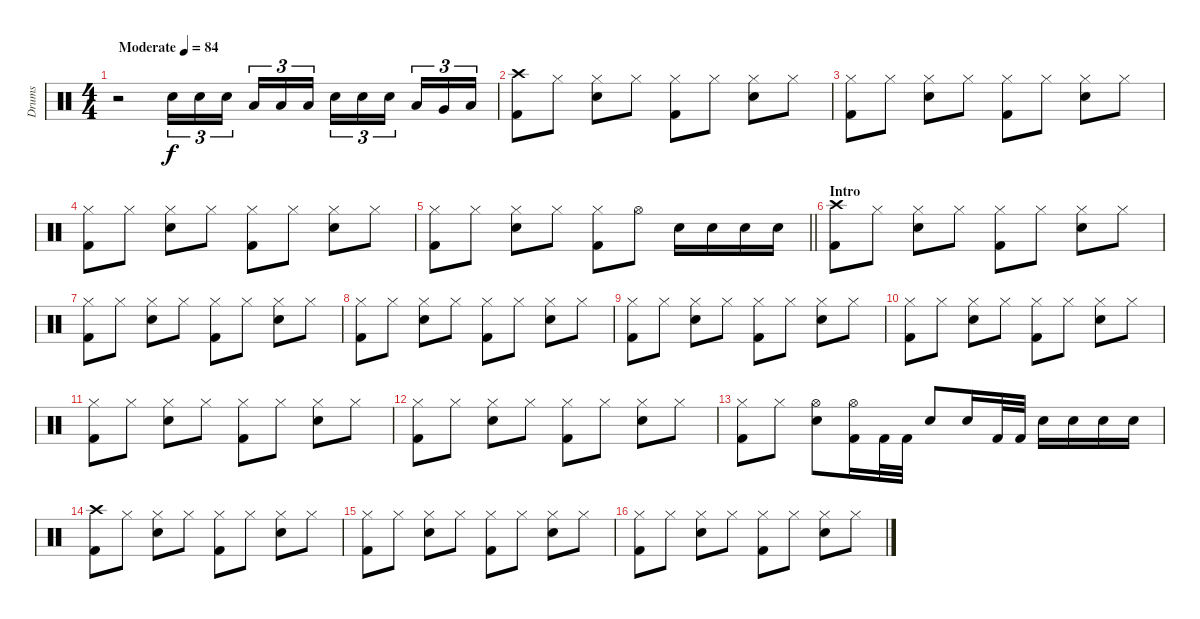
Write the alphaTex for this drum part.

\track ("Drums" "Drums") {instrument percussion}
\staff {score}
\articulation defaults
\ts (4 4)
\tempo (84 "Moderate")
\clef neutral
\ks c
r.2{dy f} "Snare (hit) 2".16{tu (3 2)} "Snare (hit) 2".16{tu (3 2)} "Snare (hit) 2".16{tu (3 2) beam splitsecondary} "Low Tom (hit)".16{tu (3 2)} "Low Tom (hit)".16{tu (3 2)} "Low Tom (hit)".16{tu (3 2)} "Electric Snare (hit)".16{tu (3 2)} "Electric Snare (hit)".16{tu (3 2)} "Electric Snare (hit)".16{tu (3 2) beam splitsecondary} "Low Tom (hit)".16{tu (3 2)} "Very Low Tom (hit)".16{tu (3 2)} "Low Floor Tom (hit)".16{tu (3 2)} |
("Crash high (hit)" "Kick (hit) 2").8 "Hi-Hat (closed)".8 ("Hi-Hat (closed)" "Snare (hit) 2").8 "Hi-Hat (closed)".8 ("Hi-Hat (closed)" "Kick (hit) 2").8 "Hi-Hat (closed)".8 ("Hi-Hat (closed)" "Snare (hit) 2").8 "Hi-Hat (closed)".8 |
("Hi-Hat (closed)" "Kick (hit) 2").8 "Hi-Hat (closed)".8 ("Hi-Hat (closed)" "Snare (hit) 2").8 "Hi-Hat (closed)".8 ("Hi-Hat (closed)" "Kick (hit) 2").8 "Hi-Hat (closed)".8 ("Hi-Hat (closed)" "Snare (hit) 2").8 "Hi-Hat (closed)".8 |
("Hi-Hat (closed)" "Kick (hit) 2").8 "Hi-Hat (closed)".8 ("Hi-Hat (closed)" "Snare (hit) 2").8 "Hi-Hat (closed)".8 ("Hi-Hat (closed)" "Kick (hit) 2").8 "Hi-Hat (closed)".8 ("Hi-Hat (closed)" "Snare (hit) 2").8 "Hi-Hat (closed)".8 |
\barLineRight lightlight
("Hi-Hat (closed)" "Kick (hit) 2").8 "Hi-Hat (closed)".8 ("Hi-Hat (closed)" "Snare (hit) 2").8 "Hi-Hat (closed)".8 ("Hi-Hat (closed)" "Kick (hit) 2").8 "Hi-Hat (open)".8 "Snare (hit) 2".16 "Snare (hit) 2".16 "Snare (hit) 2".16 "Snare (hit) 2".16 |
\section ("" "Intro")
("Crash high (hit)" "Kick (hit) 2").8 "Hi-Hat (closed)".8 ("Hi-Hat (closed)" "Snare (hit) 2").8 "Hi-Hat (closed)".8 ("Hi-Hat (closed)" "Kick (hit) 2").8 "Hi-Hat (closed)".8 ("Hi-Hat (closed)" "Snare (hit) 2").8 "Hi-Hat (closed)".8 |
("Hi-Hat (closed)" "Kick (hit) 2").8 "Hi-Hat (closed)".8 ("Hi-Hat (closed)" "Snare (hit) 2").8 "Hi-Hat (closed)".8 ("Hi-Hat (closed)" "Kick (hit) 2").8 "Hi-Hat (closed)".8 ("Hi-Hat (closed)" "Snare (hit) 2").8 "Hi-Hat (closed)".8 |
("Hi-Hat (closed)" "Kick (hit) 2").8 "Hi-Hat (closed)".8 ("Hi-Hat (closed)" "Snare (hit) 2").8 "Hi-Hat (closed)".8 ("Hi-Hat (closed)" "Kick (hit) 2").8 "Hi-Hat (closed)".8 ("Hi-Hat (closed)" "Snare (hit) 2").8 "Hi-Hat (closed)".8 |
("Hi-Hat (closed)" "Kick (hit) 2").8 "Hi-Hat (closed)".8 ("Hi-Hat (closed)" "Snare (hit) 2").8 "Hi-Hat (closed)".8 ("Hi-Hat (closed)" "Kick (hit) 2").8 "Hi-Hat (closed)".8 ("Hi-Hat (closed)" "Snare (hit) 2").8 "Hi-Hat (closed)".8 |
("Hi-Hat (closed)" "Kick (hit) 2").8 "Hi-Hat (closed)".8 ("Hi-Hat (closed)" "Snare (hit) 2").8 "Hi-Hat (closed)".8 ("Hi-Hat (closed)" "Kick (hit) 2").8 "Hi-Hat (closed)".8 ("Hi-Hat (closed)" "Snare (hit) 2").8 "Hi-Hat (closed)".8 |
("Hi-Hat (closed)" "Kick (hit) 2").8 "Hi-Hat (closed)".8 ("Hi-Hat (closed)" "Snare (hit) 2").8 "Hi-Hat (closed)".8 ("Hi-Hat (closed)" "Kick (hit) 2").8 "Hi-Hat (closed)".8 ("Hi-Hat (closed)" "Snare (hit) 2").8 "Hi-Hat (closed)".8 |
("Hi-Hat (closed)" "Kick (hit) 2").8 "Hi-Hat (closed)".8 ("Hi-Hat (closed)" "Snare (hit) 2").8 "Hi-Hat (closed)".8 ("Hi-Hat (closed)" "Kick (hit) 2").8 "Hi-Hat (closed)".8 ("Hi-Hat (closed)" "Snare (hit) 2").8 "Hi-Hat (closed)".8 |
("Hi-Hat (closed)" "Kick (hit) 2").8 "Hi-Hat (closed)".8 ("Hi-Hat (open)" "Snare (hit) 2").8 ("Hi-Hat (open)" "Kick (hit) 2").16 "Kick (hit) 2".32 "Kick (hit) 2".32 "Snare (hit) 2".8 "Snare (hit) 2".16 "Kick (hit) 2".32 "Kick (hit) 2".32 "Snare (hit) 2".16 "Snare (hit) 2".16 "Electric Snare (hit)".16 "Electric Snare (hit)".16 |
("Crash high (hit)" "Kick (hit) 2").8 "Hi-Hat (closed)".8 ("Hi-Hat (closed)" "Snare (hit) 2").8 "Hi-Hat (closed)".8 ("Hi-Hat (closed)" "Kick (hit) 2").8 "Hi-Hat (closed)".8 ("Hi-Hat (closed)" "Snare (hit) 2").8 "Hi-Hat (closed)".8 |
("Hi-Hat (closed)" "Kick (hit) 2").8 "Hi-Hat (closed)".8 ("Hi-Hat (closed)" "Snare (hit) 2").8 "Hi-Hat (closed)".8 ("Hi-Hat (closed)" "Kick (hit) 2").8 "Hi-Hat (closed)".8 ("Hi-Hat (closed)" "Snare (hit) 2").8 "Hi-Hat (closed)".8 |
("Hi-Hat (closed)" "Kick (hit) 2").8 "Hi-Hat (closed)".8 ("Hi-Hat (closed)" "Snare (hit) 2").8 "Hi-Hat (closed)".8 ("Hi-Hat (closed)" "Kick (hit) 2").8 "Hi-Hat (closed)".8 ("Hi-Hat (closed)" "Snare (hit) 2").8 "Hi-Hat (closed)".8
